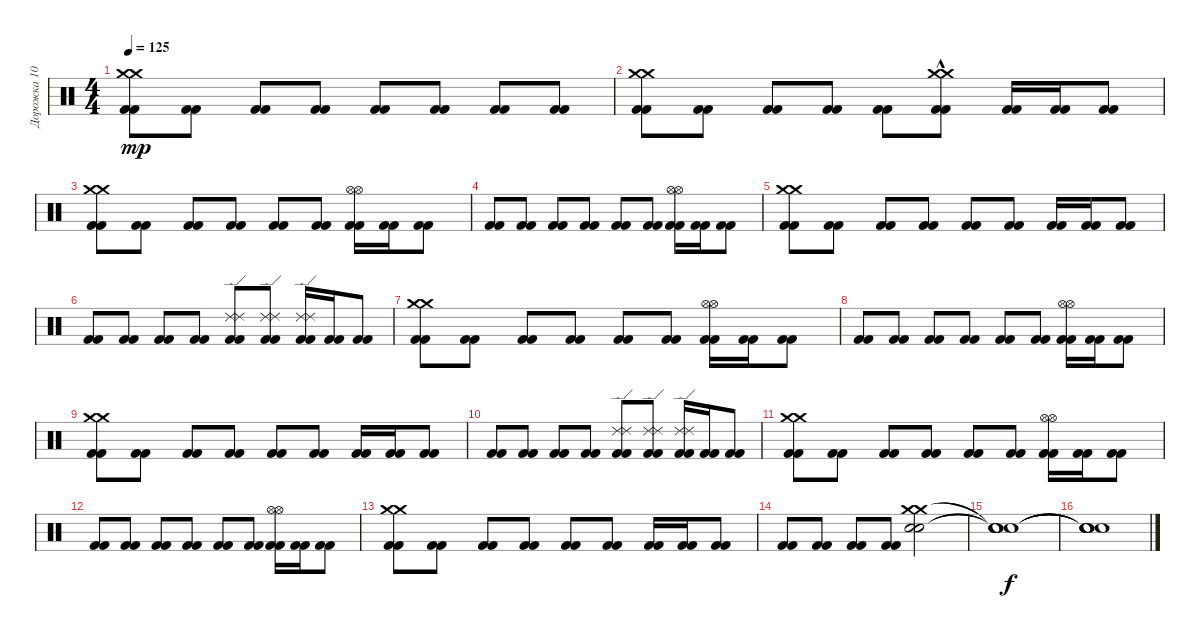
\track ("Дорожка 10" "Дорожка 10") {instrument percussion}
\staff {score}
\articulation defaults
\ts (4 4)
\tempo 125
\clef neutral
\ks c
("Kick (hit) 2" "Crash medium (hit)" "Kick (hit) 2" "Crash medium (hit)").8{dy mp} ("Kick (hit) 2" "Kick (hit) 2").8 ("Kick (hit) 2" "Kick (hit) 2").8 ("Kick (hit) 2" "Kick (hit) 2").8 ("Kick (hit) 2" "Kick (hit) 2").8 ("Kick (hit) 2" "Kick (hit) 2").8 ("Kick (hit) 2" "Kick (hit) 2").8 ("Kick (hit) 2" "Kick (hit) 2").8 |
("Kick (hit) 2" "Crash medium (hit)" "Kick (hit) 2" "Crash medium (hit)").8 ("Kick (hit) 2" "Kick (hit) 2").8 ("Kick (hit) 2" "Kick (hit) 2").8 ("Kick (hit) 2" "Kick (hit) 2").8 ("Kick (hit) 2" "Kick (hit) 2").8 ("Kick (hit) 2" "Crash medium (hit)"{hac} "Kick (hit) 2" "Crash medium (hit)"{hac}).8 ("Kick (hit) 2" "Kick (hit) 2").16 ("Kick (hit) 2" "Kick (hit) 2").16 ("Kick (hit) 2" "Kick (hit) 2").8 |
("Kick (hit) 2" "Crash medium (hit)" "Kick (hit) 2" "Crash medium (hit)").8 ("Kick (hit) 2" "Kick (hit) 2").8 ("Kick (hit) 2" "Kick (hit) 2").8 ("Kick (hit) 2" "Kick (hit) 2").8 ("Kick (hit) 2" "Kick (hit) 2").8 ("Kick (hit) 2" "Kick (hit) 2").8 ("Kick (hit) 2" "Hi-Hat (open)" "Kick (hit) 2" "Hi-Hat (open)").16 ("Kick (hit) 2" "Kick (hit) 2").16 ("Kick (hit) 2" "Kick (hit) 2").8 |
("Kick (hit) 2" "Kick (hit) 2").8 ("Kick (hit) 2" "Kick (hit) 2").8 ("Kick (hit) 2" "Kick (hit) 2").8 ("Kick (hit) 2" "Kick (hit) 2").8 ("Kick (hit) 2" "Kick (hit) 2").8 ("Kick (hit) 2" "Kick (hit) 2").8 ("Kick (hit) 2" "Hi-Hat (open)" "Kick (hit) 2" "Hi-Hat (open)").16 ("Kick (hit) 2" "Kick (hit) 2").16 ("Kick (hit) 2" "Kick (hit) 2").8 |
("Kick (hit) 2" "Crash medium (hit)" "Kick (hit) 2" "Crash medium (hit)").8 ("Kick (hit) 2" "Kick (hit) 2").8 ("Kick (hit) 2" "Kick (hit) 2").8 ("Kick (hit) 2" "Kick (hit) 2").8 ("Kick (hit) 2" "Kick (hit) 2").8 ("Kick (hit) 2" "Kick (hit) 2").8 ("Kick (hit) 2" "Kick (hit) 2").16 ("Kick (hit) 2" "Kick (hit) 2").16 ("Kick (hit) 2" "Kick (hit) 2").8 |
("Kick (hit) 2" "Kick (hit) 2").8 ("Kick (hit) 2" "Kick (hit) 2").8 ("Kick (hit) 2" "Kick (hit) 2").8 ("Kick (hit) 2" "Kick (hit) 2").8 ("Kick (hit) 2" "Ride (edge) 2" "Kick (hit) 2" "Ride (edge) 2").8 ("Kick (hit) 2" "Ride (edge) 2" "Kick (hit) 2" "Ride (edge) 2").8 ("Kick (hit) 2" "Ride (edge) 2" "Kick (hit) 2" "Ride (edge) 2").16 ("Kick (hit) 2" "Kick (hit) 2").16 ("Kick (hit) 2" "Kick (hit) 2").8 |
("Kick (hit) 2" "Crash medium (hit)" "Kick (hit) 2" "Crash medium (hit)").8 ("Kick (hit) 2" "Kick (hit) 2").8 ("Kick (hit) 2" "Kick (hit) 2").8 ("Kick (hit) 2" "Kick (hit) 2").8 ("Kick (hit) 2" "Kick (hit) 2").8 ("Kick (hit) 2" "Kick (hit) 2").8 ("Kick (hit) 2" "Hi-Hat (open)" "Kick (hit) 2" "Hi-Hat (open)").16 ("Kick (hit) 2" "Kick (hit) 2").16 ("Kick (hit) 2" "Kick (hit) 2").8 |
("Kick (hit) 2" "Kick (hit) 2").8 ("Kick (hit) 2" "Kick (hit) 2").8 ("Kick (hit) 2" "Kick (hit) 2").8 ("Kick (hit) 2" "Kick (hit) 2").8 ("Kick (hit) 2" "Kick (hit) 2").8 ("Kick (hit) 2" "Kick (hit) 2").8 ("Kick (hit) 2" "Hi-Hat (open)" "Kick (hit) 2" "Hi-Hat (open)").16 ("Kick (hit) 2" "Kick (hit) 2").16 ("Kick (hit) 2" "Kick (hit) 2").8 |
("Kick (hit) 2" "Crash medium (hit)" "Kick (hit) 2" "Crash medium (hit)").8 ("Kick (hit) 2" "Kick (hit) 2").8 ("Kick (hit) 2" "Kick (hit) 2").8 ("Kick (hit) 2" "Kick (hit) 2").8 ("Kick (hit) 2" "Kick (hit) 2").8 ("Kick (hit) 2" "Kick (hit) 2").8 ("Kick (hit) 2" "Kick (hit) 2").16 ("Kick (hit) 2" "Kick (hit) 2").16 ("Kick (hit) 2" "Kick (hit) 2").8 |
("Kick (hit) 2" "Kick (hit) 2").8 ("Kick (hit) 2" "Kick (hit) 2").8 ("Kick (hit) 2" "Kick (hit) 2").8 ("Kick (hit) 2" "Kick (hit) 2").8 ("Kick (hit) 2" "Ride (edge) 2" "Kick (hit) 2" "Ride (edge) 2").8 ("Kick (hit) 2" "Ride (edge) 2" "Kick (hit) 2" "Ride (edge) 2").8 ("Kick (hit) 2" "Ride (edge) 2" "Kick (hit) 2" "Ride (edge) 2").16 ("Kick (hit) 2" "Kick (hit) 2").16 ("Kick (hit) 2" "Kick (hit) 2").8 |
("Kick (hit) 2" "Crash medium (hit)" "Kick (hit) 2" "Crash medium (hit)").8 ("Kick (hit) 2" "Kick (hit) 2").8 ("Kick (hit) 2" "Kick (hit) 2").8 ("Kick (hit) 2" "Kick (hit) 2").8 ("Kick (hit) 2" "Kick (hit) 2").8 ("Kick (hit) 2" "Kick (hit) 2").8 ("Kick (hit) 2" "Hi-Hat (open)" "Kick (hit) 2" "Hi-Hat (open)").16 ("Kick (hit) 2" "Kick (hit) 2").16 ("Kick (hit) 2" "Kick (hit) 2").8 |
("Kick (hit) 2" "Kick (hit) 2").8 ("Kick (hit) 2" "Kick (hit) 2").8 ("Kick (hit) 2" "Kick (hit) 2").8 ("Kick (hit) 2" "Kick (hit) 2").8 ("Kick (hit) 2" "Kick (hit) 2").8 ("Kick (hit) 2" "Kick (hit) 2").8 ("Kick (hit) 2" "Hi-Hat (open)" "Kick (hit) 2" "Hi-Hat (open)").16 ("Kick (hit) 2" "Kick (hit) 2").16 ("Kick (hit) 2" "Kick (hit) 2").8 |
("Kick (hit) 2" "Crash medium (hit)" "Kick (hit) 2" "Crash medium (hit)").8 ("Kick (hit) 2" "Kick (hit) 2").8 ("Kick (hit) 2" "Kick (hit) 2").8 ("Kick (hit) 2" "Kick (hit) 2").8 ("Kick (hit) 2" "Kick (hit) 2").8 ("Kick (hit) 2" "Kick (hit) 2").8 ("Kick (hit) 2" "Kick (hit) 2").16 ("Kick (hit) 2" "Kick (hit) 2").16 ("Kick (hit) 2" "Kick (hit) 2").8 |
("Kick (hit) 2" "Kick (hit) 2").8 ("Kick (hit) 2" "Kick (hit) 2").8 ("Kick (hit) 2" "Kick (hit) 2").8 ("Kick (hit) 2" "Kick (hit) 2").8 ("Snare (hit) 2" "Crash medium (hit)" "Snare (hit) 2" "Crash medium (hit)").2 |
("Snare (hit)"{t} "Snare (hit)"{t} "Snare (hit)"{t} "Snare (hit)"{t}).1{dy f} |
("Snare (hit)"{t} "Snare (hit)"{t} "Snare (hit)"{t} "Snare (hit)"{t}).1
